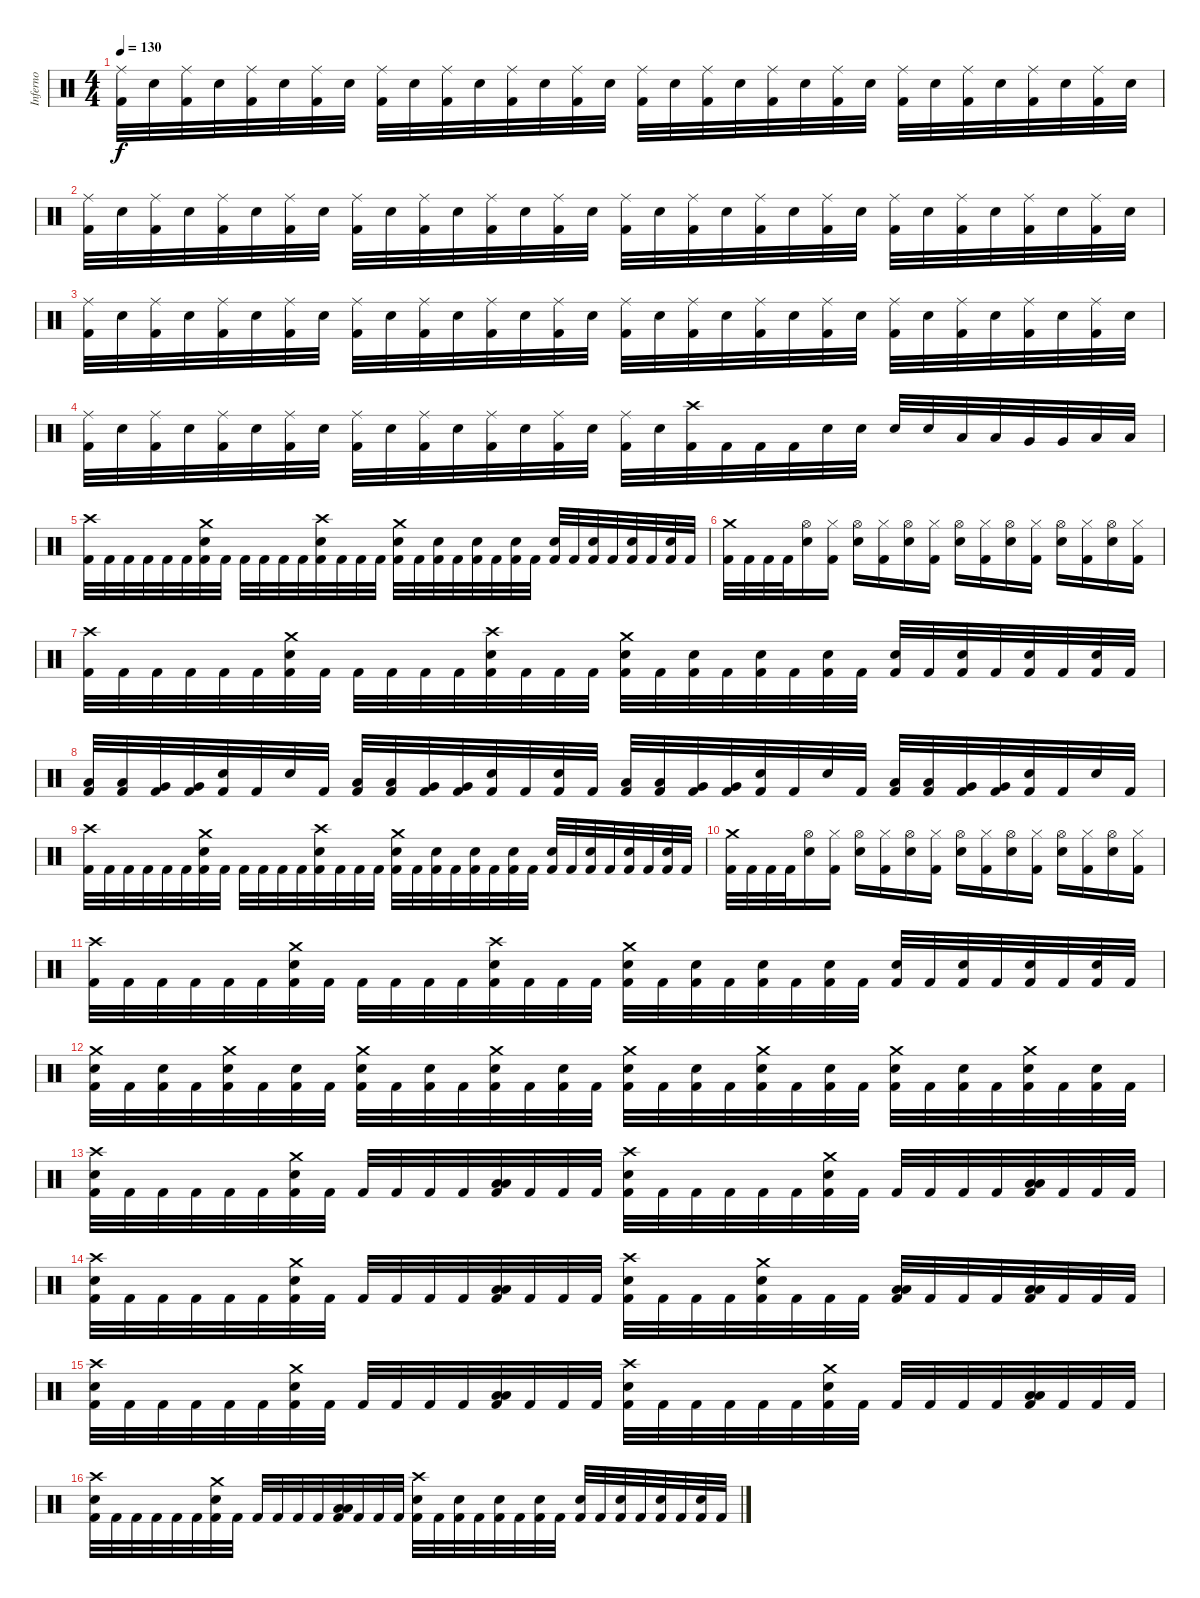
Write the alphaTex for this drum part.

\track ("Inferno" "Inferno") {instrument percussion}
\staff {score}
\articulation defaults
\ts (4 4)
\tempo 130
\clef neutral
\ks c
("Ride (middle)" "Kick (hit) 2").32{dy f} "Snare (hit) 2".32 ("Ride (middle)" "Kick (hit) 2").32 "Snare (hit) 2".32 ("Ride (middle)" "Kick (hit) 2").32 "Snare (hit) 2".32 ("Ride (middle)" "Kick (hit) 2").32 "Snare (hit) 2".32 ("Ride (middle)" "Kick (hit) 2").32 "Snare (hit) 2".32 ("Ride (middle)" "Kick (hit) 2").32 "Snare (hit) 2".32 ("Ride (middle)" "Kick (hit) 2").32 "Snare (hit) 2".32 ("Ride (middle)" "Kick (hit) 2").32 "Snare (hit) 2".32 ("Ride (middle)" "Kick (hit) 2").32 "Snare (hit) 2".32 ("Ride (middle)" "Kick (hit) 2").32 "Snare (hit) 2".32 ("Ride (middle)" "Kick (hit) 2").32 "Snare (hit) 2".32 ("Ride (middle)" "Kick (hit) 2").32 "Snare (hit) 2".32 ("Ride (middle)" "Kick (hit) 2").32 "Snare (hit) 2".32 ("Ride (middle)" "Kick (hit) 2").32 "Snare (hit) 2".32 ("Ride (middle)" "Kick (hit) 2").32 "Snare (hit) 2".32 ("Ride (middle)" "Kick (hit) 2").32 "Snare (hit) 2".32 |
("Ride (middle)" "Kick (hit) 2").32 "Snare (hit) 2".32 ("Ride (middle)" "Kick (hit) 2").32 "Snare (hit) 2".32 ("Ride (middle)" "Kick (hit) 2").32 "Snare (hit) 2".32 ("Ride (middle)" "Kick (hit) 2").32 "Snare (hit) 2".32 ("Ride (middle)" "Kick (hit) 2").32 "Snare (hit) 2".32 ("Ride (middle)" "Kick (hit) 2").32 "Snare (hit) 2".32 ("Ride (middle)" "Kick (hit) 2").32 "Snare (hit) 2".32 ("Ride (middle)" "Kick (hit) 2").32 "Snare (hit) 2".32 ("Ride (middle)" "Kick (hit) 2").32 "Snare (hit) 2".32 ("Ride (middle)" "Kick (hit) 2").32 "Snare (hit) 2".32 ("Ride (middle)" "Kick (hit) 2").32 "Snare (hit) 2".32 ("Ride (middle)" "Kick (hit) 2").32 "Snare (hit) 2".32 ("Ride (middle)" "Kick (hit) 2").32 "Snare (hit) 2".32 ("Ride (middle)" "Kick (hit) 2").32 "Snare (hit) 2".32 ("Ride (middle)" "Kick (hit) 2").32 "Snare (hit) 2".32 ("Ride (middle)" "Kick (hit) 2").32 "Snare (hit) 2".32 |
("Ride (middle)" "Kick (hit) 2").32 "Snare (hit) 2".32 ("Ride (middle)" "Kick (hit) 2").32 "Snare (hit) 2".32 ("Ride (middle)" "Kick (hit) 2").32 "Snare (hit) 2".32 ("Ride (middle)" "Kick (hit) 2").32 "Snare (hit) 2".32 ("Ride (middle)" "Kick (hit) 2").32 "Snare (hit) 2".32 ("Ride (middle)" "Kick (hit) 2").32 "Snare (hit) 2".32 ("Ride (middle)" "Kick (hit) 2").32 "Snare (hit) 2".32 ("Ride (middle)" "Kick (hit) 2").32 "Snare (hit) 2".32 ("Ride (middle)" "Kick (hit) 2").32 "Snare (hit) 2".32 ("Ride (middle)" "Kick (hit) 2").32 "Snare (hit) 2".32 ("Ride (middle)" "Kick (hit) 2").32 "Snare (hit) 2".32 ("Ride (middle)" "Kick (hit) 2").32 "Snare (hit) 2".32 ("Ride (middle)" "Kick (hit) 2").32 "Snare (hit) 2".32 ("Ride (middle)" "Kick (hit) 2").32 "Snare (hit) 2".32 ("Ride (middle)" "Kick (hit) 2").32 "Snare (hit) 2".32 ("Ride (middle)" "Kick (hit) 2").32 "Snare (hit) 2".32 |
("Ride (middle)" "Kick (hit) 2").32 "Snare (hit) 2".32 ("Ride (middle)" "Kick (hit) 2").32 "Snare (hit) 2".32 ("Ride (middle)" "Kick (hit) 2").32 "Snare (hit) 2".32 ("Ride (middle)" "Kick (hit) 2").32 "Snare (hit) 2".32 ("Ride (middle)" "Kick (hit) 2").32 "Snare (hit) 2".32 ("Ride (middle)" "Kick (hit) 2").32 "Snare (hit) 2".32 ("Ride (middle)" "Kick (hit) 2").32 "Snare (hit) 2".32 ("Ride (middle)" "Kick (hit) 2").32 "Snare (hit) 2".32 ("Ride (middle)" "Kick (hit) 2").32 "Snare (hit) 2".32 ("Crash high (hit)" "Kick (hit) 2").32 "Kick (hit) 2".32 "Kick (hit) 2".32 "Kick (hit) 2".32 "Snare (hit) 2".32 "Snare (hit) 2".32 "Snare (hit) 2".32 "Snare (hit) 2".32 "Low Tom (hit)".32 "Low Tom (hit)".32 "Very Low Tom (hit)".32 "Very Low Tom (hit)".32 "Low Floor Tom (hit)".32 "Low Floor Tom (hit)".32 |
("Crash high (hit)" "Kick (hit) 2").32 "Kick (hit) 2".32 "Kick (hit) 2".32 "Kick (hit) 2".32 "Kick (hit) 2".32 "Kick (hit) 2".32 ("Crash medium (hit)" "Snare (hit) 2" "Kick (hit) 2").32 "Kick (hit) 2".32 "Kick (hit) 2".32 "Kick (hit) 2".32 "Kick (hit) 2".32 "Kick (hit) 2".32 ("Crash high (hit)" "Snare (hit) 2" "Kick (hit) 2").32 "Kick (hit) 2".32 "Kick (hit) 2".32 "Kick (hit) 2".32 ("Crash medium (hit)" "Snare (hit) 2" "Kick (hit) 2").32 "Kick (hit) 2".32 ("Snare (hit) 2" "Kick (hit) 2").32 "Kick (hit) 2".32 ("Snare (hit) 2" "Kick (hit) 2").32 "Kick (hit) 2".32 ("Snare (hit) 2" "Kick (hit) 2").32 "Kick (hit) 2".32 ("Snare (hit) 2" "Kick (hit) 2").32 "Kick (hit) 2".32 ("Snare (hit) 2" "Kick (hit) 2").32 "Kick (hit) 2".32 ("Snare (hit) 2" "Kick (hit) 2").32 "Kick (hit) 2".32 ("Snare (hit) 2" "Kick (hit) 2").32 "Kick (hit) 2".32 |
("Crash medium (hit)" "Kick (hit) 2").32 "Kick (hit) 2".32 "Kick (hit) 2".32 "Kick (hit) 2".32 ("Hi-Hat (open)" "Snare (hit) 2").16 ("Hi-Hat (closed)" "Kick (hit) 2").16 ("Hi-Hat (open)" "Snare (hit) 2").16 ("Hi-Hat (closed)" "Kick (hit) 2").16 ("Hi-Hat (open)" "Snare (hit) 2").16 ("Hi-Hat (closed)" "Kick (hit) 2").16 ("Hi-Hat (open)" "Snare (hit) 2").16 ("Hi-Hat (closed)" "Kick (hit) 2").16 ("Hi-Hat (open)" "Snare (hit) 2").16 ("Hi-Hat (closed)" "Kick (hit) 2").16 ("Hi-Hat (open)" "Snare (hit) 2").16 ("Hi-Hat (closed)" "Kick (hit) 2").16 ("Hi-Hat (open)" "Snare (hit) 2").16 ("Hi-Hat (closed)" "Kick (hit) 2").16 |
("Crash high (hit)" "Kick (hit) 2").32 "Kick (hit) 2".32 "Kick (hit) 2".32 "Kick (hit) 2".32 "Kick (hit) 2".32 "Kick (hit) 2".32 ("Crash medium (hit)" "Snare (hit) 2" "Kick (hit) 2").32 "Kick (hit) 2".32 "Kick (hit) 2".32 "Kick (hit) 2".32 "Kick (hit) 2".32 "Kick (hit) 2".32 ("Crash high (hit)" "Snare (hit) 2" "Kick (hit) 2").32 "Kick (hit) 2".32 "Kick (hit) 2".32 "Kick (hit) 2".32 ("Crash medium (hit)" "Snare (hit) 2" "Kick (hit) 2").32 "Kick (hit) 2".32 ("Snare (hit) 2" "Kick (hit) 2").32 "Kick (hit) 2".32 ("Snare (hit) 2" "Kick (hit) 2").32 "Kick (hit) 2".32 ("Snare (hit) 2" "Kick (hit) 2").32 "Kick (hit) 2".32 ("Snare (hit) 2" "Kick (hit) 2").32 "Kick (hit) 2".32 ("Snare (hit) 2" "Kick (hit) 2").32 "Kick (hit) 2".32 ("Snare (hit) 2" "Kick (hit) 2").32 "Kick (hit) 2".32 ("Snare (hit) 2" "Kick (hit) 2").32 "Kick (hit) 2".32 |
("Low Tom (hit)" "Kick (hit) 2").32 ("Low Tom (hit)" "Kick (hit) 2").32 ("Very Low Tom (hit)" "Kick (hit) 2").32 ("Very Low Tom (hit)" "Kick (hit) 2").32 ("Snare (hit) 2" "Kick (hit) 2").32 "Kick (hit) 2".32 "Snare (hit) 2".32 "Kick (hit) 2".32 ("Low Tom (hit)" "Kick (hit) 2").32 ("Low Tom (hit)" "Kick (hit) 2").32 ("Very Low Tom (hit)" "Kick (hit) 2").32 ("Very Low Tom (hit)" "Kick (hit) 2").32 ("Snare (hit) 2" "Kick (hit) 2").32 "Kick (hit) 2".32 ("Snare (hit) 2" "Kick (hit) 2").32 "Kick (hit) 2".32 ("Low Tom (hit)" "Kick (hit) 2").32 ("Low Tom (hit)" "Kick (hit) 2").32 ("Very Low Tom (hit)" "Kick (hit) 2").32 ("Very Low Tom (hit)" "Kick (hit) 2").32 ("Snare (hit) 2" "Kick (hit) 2").32 "Kick (hit) 2".32 "Snare (hit) 2".32 "Kick (hit) 2".32 ("Low Tom (hit)" "Kick (hit) 2").32 ("Low Tom (hit)" "Kick (hit) 2").32 ("Very Low Tom (hit)" "Kick (hit) 2").32 ("Very Low Tom (hit)" "Kick (hit) 2").32 ("Snare (hit) 2" "Kick (hit) 2").32 "Kick (hit) 2".32 "Snare (hit) 2".32 "Kick (hit) 2".32 |
("Crash high (hit)" "Kick (hit) 2").32 "Kick (hit) 2".32 "Kick (hit) 2".32 "Kick (hit) 2".32 "Kick (hit) 2".32 "Kick (hit) 2".32 ("Crash medium (hit)" "Snare (hit) 2" "Kick (hit) 2").32 "Kick (hit) 2".32 "Kick (hit) 2".32 "Kick (hit) 2".32 "Kick (hit) 2".32 "Kick (hit) 2".32 ("Crash high (hit)" "Snare (hit) 2" "Kick (hit) 2").32 "Kick (hit) 2".32 "Kick (hit) 2".32 "Kick (hit) 2".32 ("Crash medium (hit)" "Snare (hit) 2" "Kick (hit) 2").32 "Kick (hit) 2".32 ("Snare (hit) 2" "Kick (hit) 2").32 "Kick (hit) 2".32 ("Snare (hit) 2" "Kick (hit) 2").32 "Kick (hit) 2".32 ("Snare (hit) 2" "Kick (hit) 2").32 "Kick (hit) 2".32 ("Snare (hit) 2" "Kick (hit) 2").32 "Kick (hit) 2".32 ("Snare (hit) 2" "Kick (hit) 2").32 "Kick (hit) 2".32 ("Snare (hit) 2" "Kick (hit) 2").32 "Kick (hit) 2".32 ("Snare (hit) 2" "Kick (hit) 2").32 "Kick (hit) 2".32 |
("Crash medium (hit)" "Kick (hit) 2").32 "Kick (hit) 2".32 "Kick (hit) 2".32 "Kick (hit) 2".32 ("Hi-Hat (open)" "Snare (hit) 2").16 ("Hi-Hat (closed)" "Kick (hit) 2").16 ("Hi-Hat (open)" "Snare (hit) 2").16 ("Hi-Hat (closed)" "Kick (hit) 2").16 ("Hi-Hat (open)" "Snare (hit) 2").16 ("Hi-Hat (closed)" "Kick (hit) 2").16 ("Hi-Hat (open)" "Snare (hit) 2").16 ("Hi-Hat (closed)" "Kick (hit) 2").16 ("Hi-Hat (open)" "Snare (hit) 2").16 ("Hi-Hat (closed)" "Kick (hit) 2").16 ("Hi-Hat (open)" "Snare (hit) 2").16 ("Hi-Hat (closed)" "Kick (hit) 2").16 ("Hi-Hat (open)" "Snare (hit) 2").16 ("Hi-Hat (closed)" "Kick (hit) 2").16 |
("Crash high (hit)" "Kick (hit) 2").32 "Kick (hit) 2".32 "Kick (hit) 2".32 "Kick (hit) 2".32 "Kick (hit) 2".32 "Kick (hit) 2".32 ("Crash medium (hit)" "Snare (hit) 2" "Kick (hit) 2").32 "Kick (hit) 2".32 "Kick (hit) 2".32 "Kick (hit) 2".32 "Kick (hit) 2".32 "Kick (hit) 2".32 ("Crash high (hit)" "Snare (hit) 2" "Kick (hit) 2").32 "Kick (hit) 2".32 "Kick (hit) 2".32 "Kick (hit) 2".32 ("Crash medium (hit)" "Snare (hit) 2" "Kick (hit) 2").32 "Kick (hit) 2".32 ("Snare (hit) 2" "Kick (hit) 2").32 "Kick (hit) 2".32 ("Snare (hit) 2" "Kick (hit) 2").32 "Kick (hit) 2".32 ("Snare (hit) 2" "Kick (hit) 2").32 "Kick (hit) 2".32 ("Snare (hit) 2" "Kick (hit) 2").32 "Kick (hit) 2".32 ("Snare (hit) 2" "Kick (hit) 2").32 "Kick (hit) 2".32 ("Snare (hit) 2" "Kick (hit) 2").32 "Kick (hit) 2".32 ("Snare (hit) 2" "Kick (hit) 2").32 "Kick (hit) 2".32 |
("Crash medium (hit)" "Snare (hit) 2" "Kick (hit) 2").32 "Kick (hit) 2".32 ("Snare (hit) 2" "Kick (hit) 2").32 "Kick (hit) 2".32 ("Crash medium (hit)" "Snare (hit) 2" "Kick (hit) 2").32 "Kick (hit) 2".32 ("Snare (hit) 2" "Kick (hit) 2").32 "Kick (hit) 2".32 ("Crash medium (hit)" "Snare (hit) 2" "Kick (hit) 2").32 "Kick (hit) 2".32 ("Snare (hit) 2" "Kick (hit) 2").32 "Kick (hit) 2".32 ("Crash medium (hit)" "Snare (hit) 2" "Kick (hit) 2").32 "Kick (hit) 2".32 ("Snare (hit) 2" "Kick (hit) 2").32 "Kick (hit) 2".32 ("Crash medium (hit)" "Snare (hit) 2" "Kick (hit) 2").32 "Kick (hit) 2".32 ("Snare (hit) 2" "Kick (hit) 2").32 "Kick (hit) 2".32 ("Crash medium (hit)" "Snare (hit) 2" "Kick (hit) 2").32 "Kick (hit) 2".32 ("Snare (hit) 2" "Kick (hit) 2").32 "Kick (hit) 2".32 ("Crash medium (hit)" "Snare (hit) 2" "Kick (hit) 2").32 "Kick (hit) 2".32 ("Snare (hit) 2" "Kick (hit) 2").32 "Kick (hit) 2".32 ("Crash medium (hit)" "Snare (hit) 2" "Kick (hit) 2").32 "Kick (hit) 2".32 ("Snare (hit) 2" "Kick (hit) 2").32 "Kick (hit) 2".32 |
("Crash high (hit)" "Snare (hit) 2" "Kick (hit) 2").32 "Kick (hit) 2".32 "Kick (hit) 2".32 "Kick (hit) 2".32 "Kick (hit) 2".32 "Kick (hit) 2".32 ("Crash medium (hit)" "Snare (hit) 2" "Kick (hit) 2").32 "Kick (hit) 2".32 "Kick (hit) 2".32 "Kick (hit) 2".32 "Kick (hit) 2".32 "Kick (hit) 2".32 ("Low Tom (hit)" "Low Floor Tom (hit)" "Kick (hit) 2").32 "Kick (hit) 2".32 "Kick (hit) 2".32 "Kick (hit) 2".32 ("Crash high (hit)" "Snare (hit) 2" "Kick (hit) 2").32 "Kick (hit) 2".32 "Kick (hit) 2".32 "Kick (hit) 2".32 "Kick (hit) 2".32 "Kick (hit) 2".32 ("Crash medium (hit)" "Snare (hit) 2" "Kick (hit) 2").32 "Kick (hit) 2".32 "Kick (hit) 2".32 "Kick (hit) 2".32 "Kick (hit) 2".32 "Kick (hit) 2".32 ("Low Tom (hit)" "Low Floor Tom (hit)" "Kick (hit) 2").32 "Kick (hit) 2".32 "Kick (hit) 2".32 "Kick (hit) 2".32 |
("Crash high (hit)" "Snare (hit) 2" "Kick (hit) 2").32 "Kick (hit) 2".32 "Kick (hit) 2".32 "Kick (hit) 2".32 "Kick (hit) 2".32 "Kick (hit) 2".32 ("Crash medium (hit)" "Snare (hit) 2" "Kick (hit) 2").32 "Kick (hit) 2".32 "Kick (hit) 2".32 "Kick (hit) 2".32 "Kick (hit) 2".32 "Kick (hit) 2".32 ("Low Tom (hit)" "Low Floor Tom (hit)" "Kick (hit) 2").32 "Kick (hit) 2".32 "Kick (hit) 2".32 "Kick (hit) 2".32 ("Crash high (hit)" "Snare (hit) 2" "Kick (hit) 2").32 "Kick (hit) 2".32 "Kick (hit) 2".32 "Kick (hit) 2".32 ("Crash medium (hit)" "Snare (hit) 2" "Kick (hit) 2").32 "Kick (hit) 2".32 "Kick (hit) 2".32 "Kick (hit) 2".32 ("Low Tom (hit)" "Low Floor Tom (hit)" "Kick (hit) 2").32 "Kick (hit) 2".32 "Kick (hit) 2".32 "Kick (hit) 2".32 ("Low Floor Tom (hit)" "Low Floor Tom (hit)" "Kick (hit) 2").32 "Kick (hit) 2".32 "Kick (hit) 2".32 "Kick (hit) 2".32 |
("Crash high (hit)" "Snare (hit) 2" "Kick (hit) 2").32 "Kick (hit) 2".32 "Kick (hit) 2".32 "Kick (hit) 2".32 "Kick (hit) 2".32 "Kick (hit) 2".32 ("Crash medium (hit)" "Snare (hit) 2" "Kick (hit) 2").32 "Kick (hit) 2".32 "Kick (hit) 2".32 "Kick (hit) 2".32 "Kick (hit) 2".32 "Kick (hit) 2".32 ("Low Tom (hit)" "Low Floor Tom (hit)" "Kick (hit) 2").32 "Kick (hit) 2".32 "Kick (hit) 2".32 "Kick (hit) 2".32 ("Crash high (hit)" "Snare (hit) 2" "Kick (hit) 2").32 "Kick (hit) 2".32 "Kick (hit) 2".32 "Kick (hit) 2".32 "Kick (hit) 2".32 "Kick (hit) 2".32 ("Crash medium (hit)" "Snare (hit) 2" "Kick (hit) 2").32 "Kick (hit) 2".32 "Kick (hit) 2".32 "Kick (hit) 2".32 "Kick (hit) 2".32 "Kick (hit) 2".32 ("Low Tom (hit)" "Low Floor Tom (hit)" "Kick (hit) 2").32 "Kick (hit) 2".32 "Kick (hit) 2".32 "Kick (hit) 2".32 |
("Crash high (hit)" "Snare (hit) 2" "Kick (hit) 2").32 "Kick (hit) 2".32 "Kick (hit) 2".32 "Kick (hit) 2".32 "Kick (hit) 2".32 "Kick (hit) 2".32 ("Crash medium (hit)" "Snare (hit) 2" "Kick (hit) 2").32 "Kick (hit) 2".32 "Kick (hit) 2".32 "Kick (hit) 2".32 "Kick (hit) 2".32 "Kick (hit) 2".32 ("Low Tom (hit)" "Low Floor Tom (hit)" "Kick (hit) 2").32 "Kick (hit) 2".32 "Kick (hit) 2".32 "Kick (hit) 2".32 ("Crash high (hit)" "Snare (hit) 2" "Kick (hit) 2").32 "Kick (hit) 2".32 ("Snare (hit) 2" "Kick (hit) 2").32 "Kick (hit) 2".32 ("Snare (hit) 2" "Kick (hit) 2").32 "Kick (hit) 2".32 ("Snare (hit) 2" "Kick (hit) 2").32 "Kick (hit) 2".32 ("Snare (hit) 2" "Kick (hit) 2").32 "Kick (hit) 2".32 ("Snare (hit) 2" "Kick (hit) 2").32 "Kick (hit) 2".32 ("Snare (hit) 2" "Kick (hit) 2").32 "Kick (hit) 2".32 ("Snare (hit) 2" "Kick (hit) 2").32 "Kick (hit) 2".32
